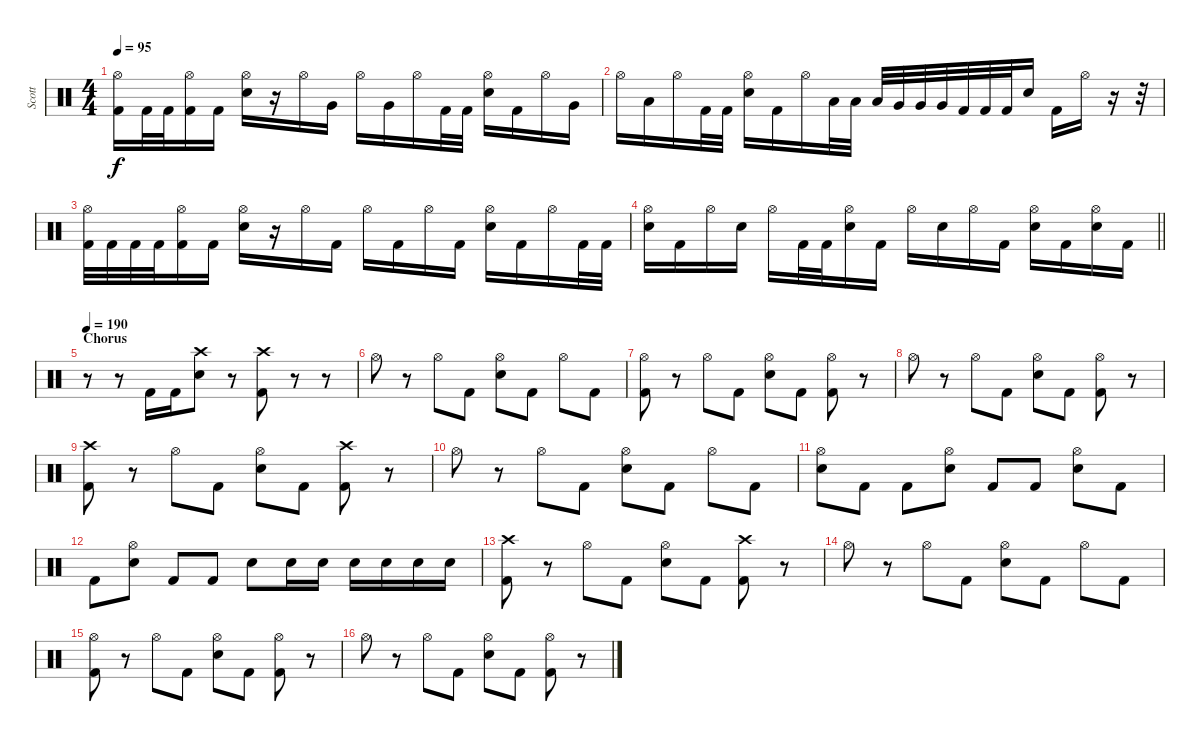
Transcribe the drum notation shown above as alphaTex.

\track ("Scott" "Scott") {instrument percussion}
\staff {score}
\articulation defaults
\ts (4 4)
\tempo 95
\clef neutral
\ks c
("Hi-Hat (open)" "Kick (hit) 2").16{dy f} "Kick (hit) 2".32 "Kick (hit) 2".32 ("Hi-Hat (open)" "Kick (hit) 2").16 "Kick (hit) 2".16 ("Hi-Hat (open)" "Electric Snare (hit)").16 r.16 "Hi-Hat (open)".16 "Very Low Tom (hit)".16 "Hi-Hat (open)".16 "Very Low Tom (hit)".16 "Hi-Hat (open)".16 "Kick (hit) 2".32 "Kick (hit) 2".32 ("Hi-Hat (open)" "Electric Snare (hit)").16 "Kick (hit) 2".16 "Hi-Hat (open)".16 "Very Low Tom (hit)".16 |
"Hi-Hat (open)".16 "Low Tom (hit)".16 "Hi-Hat (open)".16 "Kick (hit) 2".32 "Kick (hit) 2".32 ("Hi-Hat (open)" "Electric Snare (hit)").16 "Kick (hit) 2".16 "Hi-Hat (open)".16 "Low Tom (hit)".32 "Low Tom (hit)".32 "Low Tom (hit)".32 "Very Low Tom (hit)".32 "Very Low Tom (hit)".32 "Very Low Tom (hit)".32 "Kick (hit) 2".32 "Kick (hit) 2".32 "Kick (hit) 2".32 "Electric Snare (hit)".16 "Kick (hit) 2".16 "Hi-Hat (open)".16 r.16 r.32 |
("Hi-Hat (open)" "Kick (hit) 2").32 "Kick (hit) 2".32 "Kick (hit) 2".32 "Kick (hit) 2".32 ("Hi-Hat (open)" "Kick (hit) 2").16 "Kick (hit) 2".16 ("Hi-Hat (open)" "Electric Snare (hit)").16 r.16 "Hi-Hat (open)".16 "Kick (hit) 2".16 "Hi-Hat (open)".16 "Kick (hit) 2".16 "Hi-Hat (open)".16 "Kick (hit) 2".16 ("Hi-Hat (open)" "Electric Snare (hit)").16 "Kick (hit) 2".16 "Hi-Hat (open)".16 "Kick (hit) 2".32 "Kick (hit) 2".32 |
\barLineRight lightlight
("Hi-Hat (open)" "Electric Snare (hit)").16 "Kick (hit) 2".16 "Hi-Hat (open)".16 "Electric Snare (hit)".16 "Hi-Hat (open)".16 "Kick (hit) 2".32 "Kick (hit) 2".32 ("Hi-Hat (open)" "Electric Snare (hit)").16 "Kick (hit) 2".16 "Hi-Hat (open)".16 "Electric Snare (hit)".16 "Hi-Hat (open)".16 "Kick (hit) 2".16 ("Hi-Hat (open)" "Electric Snare (hit)").16 "Kick (hit) 2".16 ("Hi-Hat (open)" "Electric Snare (hit)").16 "Kick (hit) 2".16 |
\section ("" "Chorus")
\tempo 190
r.8 r.8 "Kick (hit) 2".16 "Kick (hit) 2".16 ("Crash high (hit)" "Electric Snare (hit)").8 r.8 ("Crash high (hit)" "Kick (hit) 2").8 r.8 r.8 |
"Hi-Hat (open)".8 r.8 "Hi-Hat (open)".8 "Kick (hit) 2".8 ("Hi-Hat (open)" "Electric Snare (hit)").8 "Kick (hit) 2".8 "Hi-Hat (open)".8 "Kick (hit) 2".8 |
("Hi-Hat (open)" "Kick (hit) 2").8 r.8 "Hi-Hat (open)".8 "Kick (hit) 2".8 ("Hi-Hat (open)" "Electric Snare (hit)").8 "Kick (hit) 2".8 ("Hi-Hat (open)" "Kick (hit) 2").8 r.8 |
"Hi-Hat (open)".8 r.8 "Hi-Hat (open)".8 "Kick (hit) 2".8 ("Hi-Hat (open)" "Electric Snare (hit)").8 "Kick (hit) 2".8 ("Hi-Hat (open)" "Kick (hit) 2").8 r.8 |
("Crash high (hit)" "Kick (hit) 2").8 r.8 "Hi-Hat (open)".8 "Kick (hit) 2".8 ("Hi-Hat (open)" "Electric Snare (hit)").8 "Kick (hit) 2".8 ("Crash high (hit)" "Kick (hit) 2").8 r.8 |
"Hi-Hat (open)".8 r.8 "Hi-Hat (open)".8 "Kick (hit) 2".8 ("Hi-Hat (open)" "Electric Snare (hit)").8 "Kick (hit) 2".8 "Hi-Hat (open)".8 "Kick (hit) 2".8 |
("Hi-Hat (open)" "Electric Snare (hit)").8 "Kick (hit) 2".8 "Kick (hit) 2".8 ("Hi-Hat (open)" "Electric Snare (hit)").8 "Kick (hit) 2".8 "Kick (hit) 2".8 ("Hi-Hat (open)" "Electric Snare (hit)").8 "Kick (hit) 2".8 |
"Kick (hit) 2".8 ("Hi-Hat (open)" "Electric Snare (hit)").8 "Kick (hit) 2".8 "Kick (hit) 2".8 "Electric Snare (hit)".8 "Electric Snare (hit)".16 "Electric Snare (hit)".16 "Electric Snare (hit)".16 "Electric Snare (hit)".16 "Electric Snare (hit)".16 "Electric Snare (hit)".16 |
("Crash high (hit)" "Kick (hit) 2").8 r.8 "Hi-Hat (open)".8 "Kick (hit) 2".8 ("Hi-Hat (open)" "Electric Snare (hit)").8 "Kick (hit) 2".8 ("Crash high (hit)" "Kick (hit) 2").8 r.8 |
"Hi-Hat (open)".8 r.8 "Hi-Hat (open)".8 "Kick (hit) 2".8 ("Hi-Hat (open)" "Electric Snare (hit)").8 "Kick (hit) 2".8 "Hi-Hat (open)".8 "Kick (hit) 2".8 |
("Hi-Hat (open)" "Kick (hit) 2").8 r.8 "Hi-Hat (open)".8 "Kick (hit) 2".8 ("Hi-Hat (open)" "Electric Snare (hit)").8 "Kick (hit) 2".8 ("Hi-Hat (open)" "Kick (hit) 2").8 r.8 |
"Hi-Hat (open)".8 r.8 "Hi-Hat (open)".8 "Kick (hit) 2".8 ("Hi-Hat (open)" "Electric Snare (hit)").8 "Kick (hit) 2".8 ("Hi-Hat (open)" "Kick (hit) 2").8 r.8
